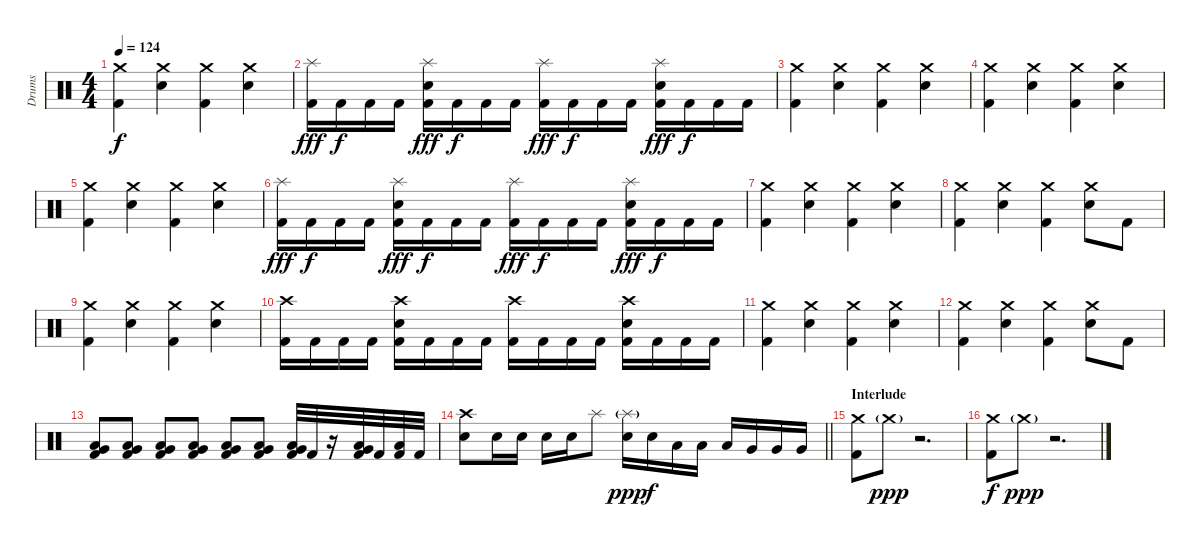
\track ("Drums" "Drums") {instrument percussion}
\staff {score}
\articulation defaults
\ts (4 4)
\tempo 124
\clef neutral
\ks c
("Crash medium (hit)" "Kick (hit) 2").4{dy f} ("Crash medium (hit)" "Electric Snare (hit)").4 ("Crash medium (hit)" "Kick (hit) 2").4 ("Crash medium (hit)" "Electric Snare (hit)").4 |
("Splash (hit)" "Kick (hit) 2").16{dy fff} "Kick (hit) 2".16{dy f} "Kick (hit) 2".16 "Kick (hit) 2".16 ("Splash (hit)" "Electric Snare (hit)" "Kick (hit) 2").16{dy fff} "Kick (hit) 2".16{dy f} "Kick (hit) 2".16 "Kick (hit) 2".16 ("Splash (hit)" "Kick (hit) 2").16{dy fff} "Kick (hit) 2".16{dy f} "Kick (hit) 2".16 "Kick (hit) 2".16 ("Splash (hit)" "Electric Snare (hit)" "Kick (hit) 2").16{dy fff} "Kick (hit) 2".16{dy f} "Kick (hit) 2".16 "Kick (hit) 2".16 |
("Crash medium (hit)" "Kick (hit) 2").4 ("Crash medium (hit)" "Electric Snare (hit)").4 ("Crash medium (hit)" "Kick (hit) 2").4 ("Crash medium (hit)" "Electric Snare (hit)").4 |
("Crash medium (hit)" "Kick (hit) 2").4 ("Crash medium (hit)" "Electric Snare (hit)").4 ("Crash medium (hit)" "Kick (hit) 2").4 ("Crash medium (hit)" "Electric Snare (hit)").4 |
("Crash medium (hit)" "Kick (hit) 2").4 ("Crash medium (hit)" "Electric Snare (hit)").4 ("Crash medium (hit)" "Kick (hit) 2").4 ("Crash medium (hit)" "Electric Snare (hit)").4 |
("Splash (hit)" "Kick (hit) 2").16{dy fff} "Kick (hit) 2".16{dy f} "Kick (hit) 2".16 "Kick (hit) 2".16 ("Splash (hit)" "Electric Snare (hit)" "Kick (hit) 2").16{dy fff} "Kick (hit) 2".16{dy f} "Kick (hit) 2".16 "Kick (hit) 2".16 ("Splash (hit)" "Kick (hit) 2").16{dy fff} "Kick (hit) 2".16{dy f} "Kick (hit) 2".16 "Kick (hit) 2".16 ("Splash (hit)" "Electric Snare (hit)" "Kick (hit) 2").16{dy fff} "Kick (hit) 2".16{dy f} "Kick (hit) 2".16 "Kick (hit) 2".16 |
("Crash medium (hit)" "Kick (hit) 2").4 ("Crash medium (hit)" "Electric Snare (hit)").4 ("Crash medium (hit)" "Kick (hit) 2").4 ("Crash medium (hit)" "Electric Snare (hit)").4 |
("Crash medium (hit)" "Kick (hit) 2").4 ("Crash medium (hit)" "Electric Snare (hit)").4 ("Crash medium (hit)" "Kick (hit) 2").4 ("Crash medium (hit)" "Electric Snare (hit)").8 "Kick (hit) 2".8 |
("Crash medium (hit)" "Kick (hit) 2").4 ("Crash medium (hit)" "Electric Snare (hit)").4 ("Crash medium (hit)" "Kick (hit) 2").4 ("Crash medium (hit)" "Electric Snare (hit)").4 |
("Crash high (hit)" "Kick (hit) 2").16 "Kick (hit) 2".16 "Kick (hit) 2".16 "Kick (hit) 2".16 ("Crash high (hit)" "Electric Snare (hit)" "Kick (hit) 2").16 "Kick (hit) 2".16 "Kick (hit) 2".16 "Kick (hit) 2".16 ("Crash high (hit)" "Kick (hit) 2").16 "Kick (hit) 2".16 "Kick (hit) 2".16 "Kick (hit) 2".16 ("Crash high (hit)" "Electric Snare (hit)" "Kick (hit) 2").16 "Kick (hit) 2".16 "Kick (hit) 2".16 "Kick (hit) 2".16 |
("Crash medium (hit)" "Kick (hit) 2").4 ("Crash medium (hit)" "Electric Snare (hit)").4 ("Crash medium (hit)" "Kick (hit) 2").4 ("Crash medium (hit)" "Electric Snare (hit)").4 |
("Crash medium (hit)" "Kick (hit) 2").4 ("Crash medium (hit)" "Electric Snare (hit)").4 ("Crash medium (hit)" "Kick (hit) 2").4 ("Crash medium (hit)" "Electric Snare (hit)").8 "Kick (hit) 2".8 |
("Low Tom (hit)" "Very Low Tom (hit)" "Kick (hit) 2").8 ("Low Tom (hit)" "Very Low Tom (hit)" "Kick (hit) 2").8 ("Low Tom (hit)" "Very Low Tom (hit)" "Kick (hit) 2").8 ("Low Tom (hit)" "Very Low Tom (hit)" "Kick (hit) 2").8 ("Low Tom (hit)" "Very Low Tom (hit)" "Kick (hit) 2").8 ("Low Tom (hit)" "Very Low Tom (hit)" "Kick (hit) 2").8 ("Low Tom (hit)" "Very Low Tom (hit)" "Kick (hit) 2").32 "Kick (hit) 2".32 r.16 ("Low Tom (hit)" "Very Low Tom (hit)" "Kick (hit) 2").32 "Kick (hit) 2".32 ("Low Tom (hit)" "Kick (hit) 2").32 "Kick (hit) 2".32 |
\barLineRight lightlight
("Crash high (hit)" "Electric Snare (hit)").8 "Electric Snare (hit)".16 "Electric Snare (hit)".16 "Electric Snare (hit)".16 "Electric Snare (hit)".16 "Splash (hit)".8 ("Splash (hit)"{g} "Electric Snare (hit)").16{dy ppp} "Electric Snare (hit)".16{dy f} "Low Tom (hit)".16 "Low Tom (hit)".16 "Low Tom (hit)".16 "Very Low Tom (hit)".16 "Very Low Tom (hit)".16 "Very Low Tom (hit)".16 |
\section ("" "Interlude")
("Crash medium (hit)" "Kick (hit) 2").8 "Crash medium (hit)"{g}.8{dy ppp} r.2{d} |
("Crash medium (hit)" "Kick (hit) 2").8{dy f} "Crash medium (hit)"{g}.8{dy ppp} r.2{d}
